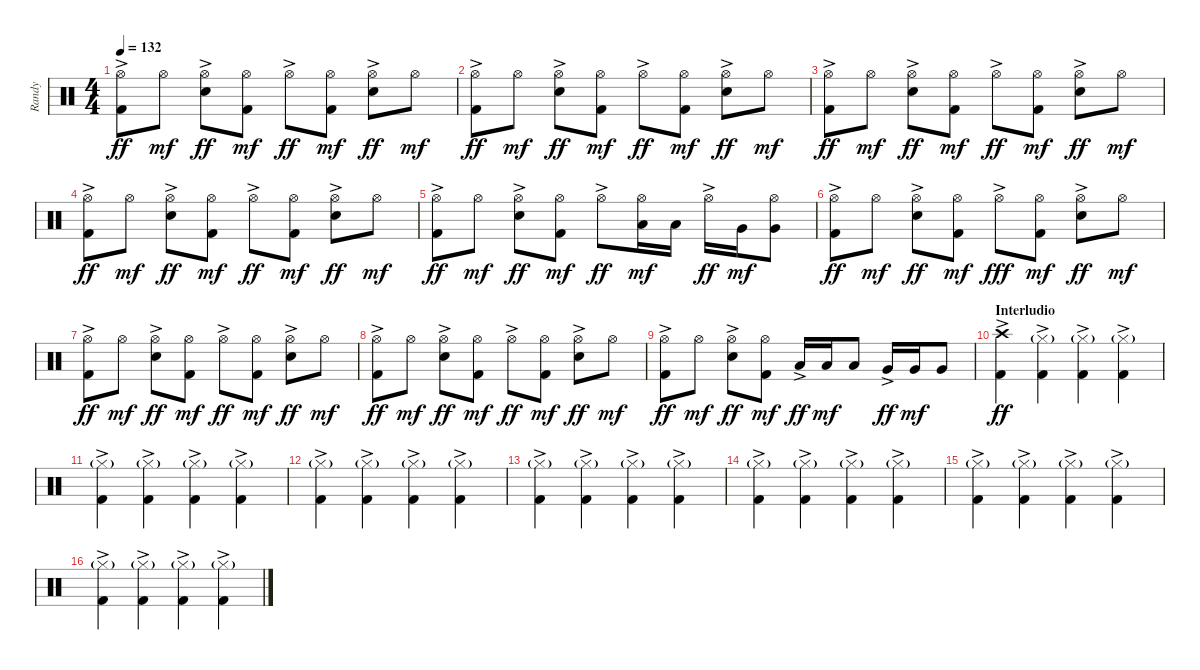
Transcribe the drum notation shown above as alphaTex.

\track ("Randy" "Randy") {instrument percussion}
\staff {score}
\articulation defaults
\ts (4 4)
\tempo 132
\clef neutral
\ks c
("Hi-Hat (open)"{ac} "Kick (hit) 2").8{dy ff} "Hi-Hat (open)".8{dy mf} ("Hi-Hat (open)"{ac} "Snare (hit) 2").8{dy ff} ("Hi-Hat (open)" "Kick (hit) 2").8{dy mf} "Hi-Hat (open)"{ac}.8{dy ff} ("Hi-Hat (open)" "Kick (hit) 2").8{dy mf} ("Hi-Hat (open)"{ac} "Snare (hit) 2").8{dy ff} "Hi-Hat (open)".8{dy mf} |
("Hi-Hat (open)"{ac} "Kick (hit) 2").8{dy ff} "Hi-Hat (open)".8{dy mf} ("Hi-Hat (open)"{ac} "Snare (hit) 2").8{dy ff} ("Hi-Hat (open)" "Kick (hit) 2").8{dy mf} "Hi-Hat (open)"{ac}.8{dy ff} ("Hi-Hat (open)" "Kick (hit) 2").8{dy mf} ("Hi-Hat (open)"{ac} "Snare (hit) 2").8{dy ff} "Hi-Hat (open)".8{dy mf} |
("Hi-Hat (open)"{ac} "Kick (hit) 2").8{dy ff} "Hi-Hat (open)".8{dy mf} ("Hi-Hat (open)"{ac} "Snare (hit) 2").8{dy ff} ("Hi-Hat (open)" "Kick (hit) 2").8{dy mf} "Hi-Hat (open)"{ac}.8{dy ff} ("Hi-Hat (open)" "Kick (hit) 2").8{dy mf} ("Hi-Hat (open)"{ac} "Snare (hit) 2").8{dy ff} "Hi-Hat (open)".8{dy mf} |
("Hi-Hat (open)"{ac} "Kick (hit) 2").8{dy ff} "Hi-Hat (open)".8{dy mf} ("Hi-Hat (open)"{ac} "Snare (hit) 2").8{dy ff} ("Hi-Hat (open)" "Kick (hit) 2").8{dy mf} "Hi-Hat (open)"{ac}.8{dy ff} ("Hi-Hat (open)" "Kick (hit) 2").8{dy mf} ("Hi-Hat (open)"{ac} "Snare (hit) 2").8{dy ff} "Hi-Hat (open)".8{dy mf} |
("Hi-Hat (open)"{ac} "Kick (hit) 2").8{dy ff} "Hi-Hat (open)".8{dy mf} ("Hi-Hat (open)"{ac} "Snare (hit) 2").8{dy ff} ("Hi-Hat (open)" "Kick (hit) 2").8{dy mf} "Hi-Hat (open)"{ac}.8{dy ff} ("Low Tom (hit)" "Hi-Hat (open)").16{dy mf} "Low Tom (hit)".16 "Hi-Hat (open)"{ac}.16{dy ff} "Very Low Tom (hit)".16{dy mf} ("Very Low Tom (hit)" "Hi-Hat (open)").8 |
("Hi-Hat (open)"{ac} "Kick (hit) 2").8{dy ff} "Hi-Hat (open)".8{dy mf} ("Hi-Hat (open)"{ac} "Snare (hit) 2").8{dy ff} ("Hi-Hat (open)" "Kick (hit) 2").8{dy mf} "Hi-Hat (open)"{ac}.8{dy fff} ("Hi-Hat (open)" "Kick (hit) 2").8{dy mf} ("Hi-Hat (open)"{ac} "Snare (hit) 2").8{dy ff} "Hi-Hat (open)".8{dy mf} |
("Hi-Hat (open)"{ac} "Kick (hit) 2").8{dy ff} "Hi-Hat (open)".8{dy mf} ("Hi-Hat (open)"{ac} "Snare (hit) 2").8{dy ff} ("Hi-Hat (open)" "Kick (hit) 2").8{dy mf} "Hi-Hat (open)"{ac}.8{dy ff} ("Hi-Hat (open)" "Kick (hit) 2").8{dy mf} ("Hi-Hat (open)"{ac} "Snare (hit) 2").8{dy ff} "Hi-Hat (open)".8{dy mf} |
("Hi-Hat (open)"{ac} "Kick (hit) 2").8{dy ff} "Hi-Hat (open)".8{dy mf} ("Hi-Hat (open)"{ac} "Snare (hit) 2").8{dy ff} ("Hi-Hat (open)" "Kick (hit) 2").8{dy mf} "Hi-Hat (open)"{ac}.8{dy ff} ("Hi-Hat (open)" "Kick (hit) 2").8{dy mf} ("Hi-Hat (open)"{ac} "Snare (hit) 2").8{dy ff} "Hi-Hat (open)".8{dy mf} |
("Hi-Hat (open)"{ac} "Kick (hit) 2").8{dy ff} "Hi-Hat (open)".8{dy mf} ("Hi-Hat (open)"{ac} "Snare (hit) 2").8{dy ff} ("Hi-Hat (open)" "Kick (hit) 2").8{dy mf} "Low Tom (hit)"{ac}.16{dy ff} "Low Tom (hit)".16{dy mf} "Low Tom (hit)".8 "Very Low Tom (hit)"{ac}.16{dy ff} "Very Low Tom (hit)".16{dy mf} "Very Low Tom (hit)".8 |
\section ("" "Interludio")
("Crash high (hit)"{ac} "Kick (hit) 2").4{dy ff} ("Hi-Hat (closed)"{g} "Kick (hit) 2"{ac}).4 ("Hi-Hat (closed)"{g} "Kick (hit) 2"{ac}).4 ("Hi-Hat (closed)"{g} "Kick (hit) 2"{ac}).4 |
("Hi-Hat (closed)"{g} "Kick (hit) 2"{ac}).4 ("Hi-Hat (closed)"{g} "Kick (hit) 2"{ac}).4 ("Hi-Hat (closed)"{g} "Kick (hit) 2"{ac}).4 ("Hi-Hat (closed)"{g} "Kick (hit) 2"{ac}).4 |
("Hi-Hat (closed)"{g} "Kick (hit) 2"{ac}).4 ("Hi-Hat (closed)"{g} "Kick (hit) 2"{ac}).4 ("Hi-Hat (closed)"{g} "Kick (hit) 2"{ac}).4 ("Hi-Hat (closed)"{g} "Kick (hit) 2"{ac}).4 |
("Hi-Hat (closed)"{g} "Kick (hit) 2"{ac}).4 ("Hi-Hat (closed)"{g} "Kick (hit) 2"{ac}).4 ("Hi-Hat (closed)"{g} "Kick (hit) 2"{ac}).4 ("Hi-Hat (closed)"{g} "Kick (hit) 2"{ac}).4 |
("Hi-Hat (closed)"{g} "Kick (hit) 2"{ac}).4 ("Hi-Hat (closed)"{g} "Kick (hit) 2"{ac}).4 ("Hi-Hat (closed)"{g} "Kick (hit) 2"{ac}).4 ("Hi-Hat (closed)"{g} "Kick (hit) 2"{ac}).4 |
("Hi-Hat (closed)"{g} "Kick (hit) 2"{ac}).4 ("Hi-Hat (closed)"{g} "Kick (hit) 2"{ac}).4 ("Hi-Hat (closed)"{g} "Kick (hit) 2"{ac}).4 ("Hi-Hat (closed)"{g} "Kick (hit) 2"{ac}).4 |
("Hi-Hat (closed)"{g} "Kick (hit) 2"{ac}).4 ("Hi-Hat (closed)"{g} "Kick (hit) 2"{ac}).4 ("Hi-Hat (closed)"{g} "Kick (hit) 2"{ac}).4 ("Hi-Hat (closed)"{g} "Kick (hit) 2"{ac}).4
